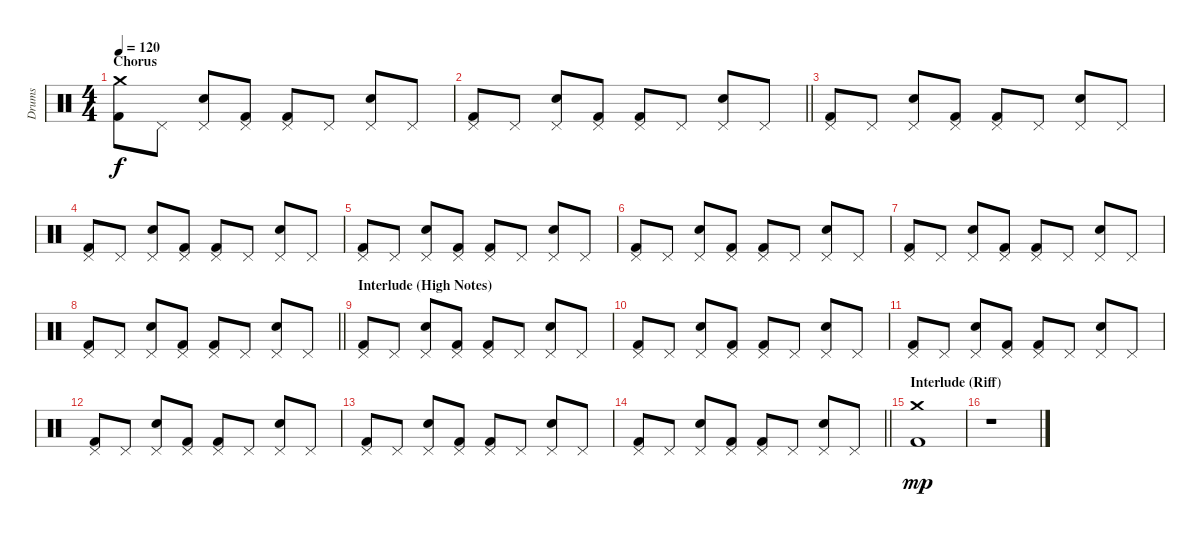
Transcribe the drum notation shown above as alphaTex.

\track ("Drums" "Drums") {instrument percussion}
\staff {score}
\articulation defaults
\ts (4 4)
\section ("" "Chorus")
\tempo 120
\clef neutral
\ks c
("Crash medium (hit)" "Kick (hit) 2").8{dy f} "Pedal Hi-Hat (hit)".8 ("Pedal Hi-Hat (hit)" "Electric Snare (hit)").8 ("Pedal Hi-Hat (hit)" "Kick (hit) 2").8 ("Pedal Hi-Hat (hit)" "Kick (hit) 2").8 "Pedal Hi-Hat (hit)".8 ("Pedal Hi-Hat (hit)" "Electric Snare (hit)").8 "Pedal Hi-Hat (hit)".8 |
\barLineRight lightlight
("Pedal Hi-Hat (hit)" "Kick (hit) 2").8 "Pedal Hi-Hat (hit)".8 ("Pedal Hi-Hat (hit)" "Electric Snare (hit)").8 ("Pedal Hi-Hat (hit)" "Kick (hit) 2").8 ("Pedal Hi-Hat (hit)" "Kick (hit) 2").8 "Pedal Hi-Hat (hit)".8 ("Pedal Hi-Hat (hit)" "Electric Snare (hit)").8 "Pedal Hi-Hat (hit)".8 |
("Pedal Hi-Hat (hit)" "Kick (hit) 2").8 "Pedal Hi-Hat (hit)".8 ("Pedal Hi-Hat (hit)" "Electric Snare (hit)").8 ("Pedal Hi-Hat (hit)" "Kick (hit) 2").8 ("Pedal Hi-Hat (hit)" "Kick (hit) 2").8 "Pedal Hi-Hat (hit)".8 ("Pedal Hi-Hat (hit)" "Electric Snare (hit)").8 "Pedal Hi-Hat (hit)".8 |
("Pedal Hi-Hat (hit)" "Kick (hit) 2").8 "Pedal Hi-Hat (hit)".8 ("Pedal Hi-Hat (hit)" "Electric Snare (hit)").8 ("Pedal Hi-Hat (hit)" "Kick (hit) 2").8 ("Pedal Hi-Hat (hit)" "Kick (hit) 2").8 "Pedal Hi-Hat (hit)".8 ("Pedal Hi-Hat (hit)" "Electric Snare (hit)").8 "Pedal Hi-Hat (hit)".8 |
("Pedal Hi-Hat (hit)" "Kick (hit) 2").8 "Pedal Hi-Hat (hit)".8 ("Pedal Hi-Hat (hit)" "Electric Snare (hit)").8 ("Pedal Hi-Hat (hit)" "Kick (hit) 2").8 ("Pedal Hi-Hat (hit)" "Kick (hit) 2").8 "Pedal Hi-Hat (hit)".8 ("Pedal Hi-Hat (hit)" "Electric Snare (hit)").8 "Pedal Hi-Hat (hit)".8 |
("Pedal Hi-Hat (hit)" "Kick (hit) 2").8 "Pedal Hi-Hat (hit)".8 ("Pedal Hi-Hat (hit)" "Electric Snare (hit)").8 ("Pedal Hi-Hat (hit)" "Kick (hit) 2").8 ("Pedal Hi-Hat (hit)" "Kick (hit) 2").8 "Pedal Hi-Hat (hit)".8 ("Pedal Hi-Hat (hit)" "Electric Snare (hit)").8 "Pedal Hi-Hat (hit)".8 |
("Pedal Hi-Hat (hit)" "Kick (hit) 2").8 "Pedal Hi-Hat (hit)".8 ("Pedal Hi-Hat (hit)" "Electric Snare (hit)").8 ("Pedal Hi-Hat (hit)" "Kick (hit) 2").8 ("Pedal Hi-Hat (hit)" "Kick (hit) 2").8 "Pedal Hi-Hat (hit)".8 ("Pedal Hi-Hat (hit)" "Electric Snare (hit)").8 "Pedal Hi-Hat (hit)".8 |
\barLineRight lightlight
("Pedal Hi-Hat (hit)" "Kick (hit) 2").8 "Pedal Hi-Hat (hit)".8 ("Pedal Hi-Hat (hit)" "Electric Snare (hit)").8 ("Pedal Hi-Hat (hit)" "Kick (hit) 2").8 ("Pedal Hi-Hat (hit)" "Kick (hit) 2").8 "Pedal Hi-Hat (hit)".8 ("Pedal Hi-Hat (hit)" "Electric Snare (hit)").8 "Pedal Hi-Hat (hit)".8 |
\section ("" "Interlude (High Notes)")
("Pedal Hi-Hat (hit)" "Kick (hit) 2").8 "Pedal Hi-Hat (hit)".8 ("Pedal Hi-Hat (hit)" "Electric Snare (hit)").8 ("Pedal Hi-Hat (hit)" "Kick (hit) 2").8 ("Pedal Hi-Hat (hit)" "Kick (hit) 2").8 "Pedal Hi-Hat (hit)".8 ("Pedal Hi-Hat (hit)" "Electric Snare (hit)").8 "Pedal Hi-Hat (hit)".8 |
("Pedal Hi-Hat (hit)" "Kick (hit) 2").8 "Pedal Hi-Hat (hit)".8 ("Pedal Hi-Hat (hit)" "Electric Snare (hit)").8 ("Pedal Hi-Hat (hit)" "Kick (hit) 2").8 ("Pedal Hi-Hat (hit)" "Kick (hit) 2").8 "Pedal Hi-Hat (hit)".8 ("Pedal Hi-Hat (hit)" "Electric Snare (hit)").8 "Pedal Hi-Hat (hit)".8 |
("Pedal Hi-Hat (hit)" "Kick (hit) 2").8 "Pedal Hi-Hat (hit)".8 ("Pedal Hi-Hat (hit)" "Electric Snare (hit)").8 ("Pedal Hi-Hat (hit)" "Kick (hit) 2").8 ("Pedal Hi-Hat (hit)" "Kick (hit) 2").8 "Pedal Hi-Hat (hit)".8 ("Pedal Hi-Hat (hit)" "Electric Snare (hit)").8 "Pedal Hi-Hat (hit)".8 |
("Pedal Hi-Hat (hit)" "Kick (hit) 2").8 "Pedal Hi-Hat (hit)".8 ("Pedal Hi-Hat (hit)" "Electric Snare (hit)").8 ("Pedal Hi-Hat (hit)" "Kick (hit) 2").8 ("Pedal Hi-Hat (hit)" "Kick (hit) 2").8 "Pedal Hi-Hat (hit)".8 ("Pedal Hi-Hat (hit)" "Electric Snare (hit)").8 "Pedal Hi-Hat (hit)".8 |
("Pedal Hi-Hat (hit)" "Kick (hit) 2").8 "Pedal Hi-Hat (hit)".8 ("Pedal Hi-Hat (hit)" "Electric Snare (hit)").8 ("Pedal Hi-Hat (hit)" "Kick (hit) 2").8 ("Pedal Hi-Hat (hit)" "Kick (hit) 2").8 "Pedal Hi-Hat (hit)".8 ("Pedal Hi-Hat (hit)" "Electric Snare (hit)").8 "Pedal Hi-Hat (hit)".8 |
\barLineRight lightlight
("Pedal Hi-Hat (hit)" "Kick (hit) 2").8 "Pedal Hi-Hat (hit)".8 ("Pedal Hi-Hat (hit)" "Electric Snare (hit)").8 ("Pedal Hi-Hat (hit)" "Kick (hit) 2").8 ("Pedal Hi-Hat (hit)" "Kick (hit) 2").8 "Pedal Hi-Hat (hit)".8 ("Pedal Hi-Hat (hit)" "Electric Snare (hit)").8 "Pedal Hi-Hat (hit)".8 |
\section ("" "Interlude (Riff)")
("Crash medium (hit)" "Kick (hit) 2").1{dy mp} |
r.1
